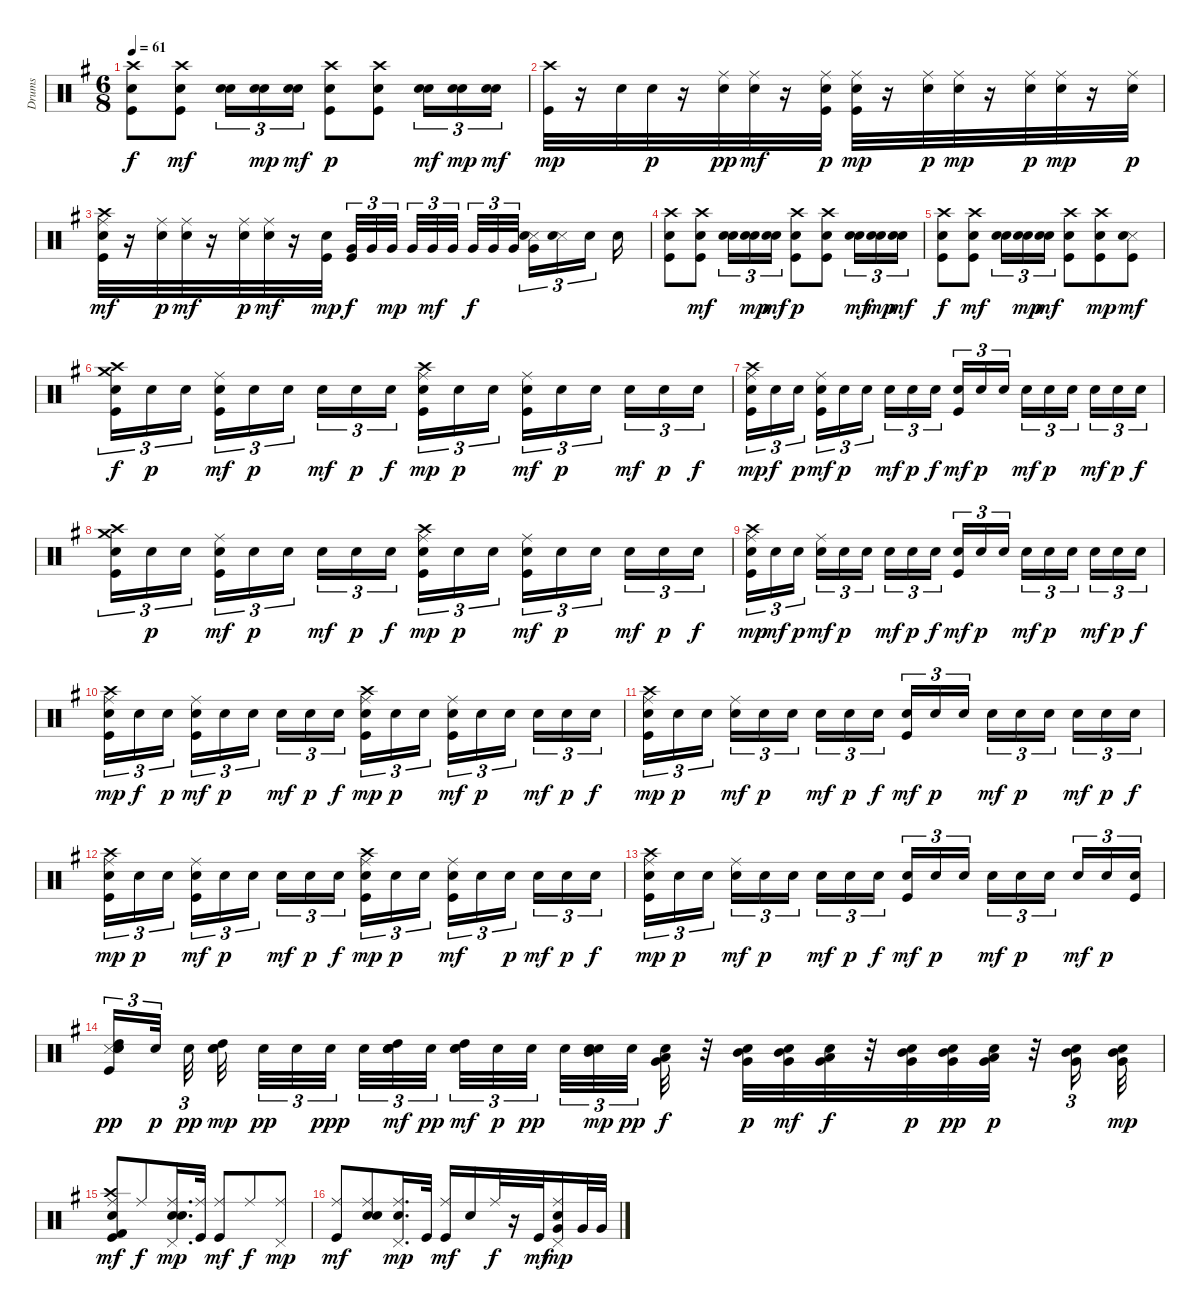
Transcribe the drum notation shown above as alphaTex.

\track ("Drums" "Drums") {instrument percussion}
\staff {score}
\articulation defaults
\ts (6 8)
\tempo 61
\clef neutral
\ks g
("Kick (hit)" "Electric Snare (hit)" "Crash high (hit)").8{dy f} ("Kick (hit)" "Electric Snare (hit)" "Crash high (hit)").8{dy mf} ("Snare (hit) 2" "Electric Snare (hit)").16{tu (3 2)} ("Snare (hit) 2" "Electric Snare (hit)").16{tu (3 2) dy mp} ("Snare (hit) 2" "Electric Snare (hit)").16{tu (3 2) dy mf} ("Kick (hit)" "Electric Snare (hit)" "Crash high (hit)").8{dy p} ("Kick (hit)" "Electric Snare (hit)" "Crash high (hit)").8 ("Snare (hit) 2" "Electric Snare (hit)").16{tu (3 2) dy mf} ("Snare (hit) 2" "Electric Snare (hit)").16{tu (3 2) dy mp} ("Snare (hit) 2" "Electric Snare (hit)").16{tu (3 2) dy mf} |
("Kick (hit)" "Crash high (hit)").32{dy mp} r.16 "Electric Snare (hit)".32 "Electric Snare (hit)".32{dy p} r.16 ("Electric Snare (hit)" "Ride (middle)").32{dy pp} ("Electric Snare (hit)" "Ride (middle)").32{dy mf} r.16 ("Ride (middle)" "Kick (hit)" "Electric Snare (hit)").32{dy p} ("Kick (hit)" "Electric Snare (hit)" "Ride (middle)").32{dy mp} r.16 ("Ride (middle)" "Electric Snare (hit)").32{dy p} ("Electric Snare (hit)" "Ride (middle)").32{dy mp} r.16 ("Electric Snare (hit)" "Ride (middle)").32{dy p} ("Electric Snare (hit)" "Ride (middle)").32{dy mp} r.16 ("Electric Snare (hit)" "Ride (middle)").32{dy p} |
("Kick (hit)" "Electric Snare (hit)" "Crash high (hit)" "Ride (middle)").32{dy mf} r.16 ("Electric Snare (hit)" "Ride (middle)").32{dy p} ("Electric Snare (hit)" "Ride (middle)").32{dy mf} r.16 ("Electric Snare (hit)" "Ride (middle)").32{dy p} ("Electric Snare (hit)" "Ride (middle)").32{dy mf} r.16 ("Kick (hit)" "Electric Snare (hit)").32{dy mp} ("Kick (hit)" "Very Low Tom (hit)").32{tu (3 2) dy f} "Very Low Tom (hit)".32{tu (3 2)} "Very Low Tom (hit)".32{tu (3 2) dy mp beam splitsecondary} "Very Low Tom (hit)".32{tu (3 2)} "Very Low Tom (hit)".32{tu (3 2) dy mf} "Very Low Tom (hit)".32{tu (3 2) beam splitsecondary} "Very Low Tom (hit)".32{tu (3 2) dy f} "Very Low Tom (hit)".32{tu (3 2)} "Very Low Tom (hit)".32{tu (3 2) beam splitsecondary} ("Very Low Tom (hit)" "Snare (side stick) 3" "Electric Snare (hit)").16{tu (3 2)} ("Snare (side stick) 3" "Electric Snare (hit)").16{tu (3 2)} "Electric Snare (hit)".16{tu (3 2) beam splitsecondary} "Electric Snare (hit)".16 |
("Kick (hit)" "Electric Snare (hit)" "Crash high (hit)").8 ("Kick (hit)" "Electric Snare (hit)" "Crash high (hit)").8{dy mf} ("Snare (hit) 2" "Electric Snare (hit)").16{tu (3 2)} ("Snare (hit) 2" "Electric Snare (hit)").16{tu (3 2) dy mp} ("Snare (hit) 2" "Electric Snare (hit)").16{tu (3 2) dy mf} ("Kick (hit)" "Electric Snare (hit)" "Crash high (hit)").8{dy p} ("Kick (hit)" "Electric Snare (hit)" "Crash high (hit)").8 ("Snare (hit) 2" "Electric Snare (hit)").16{tu (3 2) dy mf} ("Snare (hit) 2" "Electric Snare (hit)").16{tu (3 2) dy mp} ("Snare (hit) 2" "Electric Snare (hit)").16{tu (3 2) dy mf} |
("Kick (hit)" "Electric Snare (hit)" "Crash high (hit)").8{dy f} ("Kick (hit)" "Electric Snare (hit)" "Crash high (hit)").8{dy mf} ("Snare (hit) 2" "Electric Snare (hit)").16{tu (3 2)} ("Snare (hit) 2" "Electric Snare (hit)").16{tu (3 2) dy mp} ("Snare (hit) 2" "Electric Snare (hit)").16{tu (3 2) dy mf} ("Crash high (hit)" "Kick (hit)" "Electric Snare (hit)").8 ("Kick (hit)" "Electric Snare (hit)" "Crash high (hit)").8{dy mp} ("Kick (hit)" "Snare (side stick) 3" "Electric Snare (hit)").8{dy mf} |
("Kick (hit)" "Electric Snare (hit)" "Crash medium (hit)" "Crash high (hit)").16{tu (3 2) dy f} "Electric Snare (hit)".16{tu (3 2) dy p} "Electric Snare (hit)".16{tu (3 2) beam splitsecondary} ("Kick (hit)" "Electric Snare (hit)" "Ride (middle)").16{tu (3 2) dy mf} "Electric Snare (hit)".16{tu (3 2) dy p} "Electric Snare (hit)".16{tu (3 2) beam splitsecondary} "Electric Snare (hit)".16{tu (3 2) dy mf} "Electric Snare (hit)".16{tu (3 2) dy p} "Electric Snare (hit)".16{tu (3 2) dy f} ("Kick (hit)" "Electric Snare (hit)" "Crash high (hit)" "Ride (middle)").16{tu (3 2) dy mp} "Electric Snare (hit)".16{tu (3 2) dy p} "Electric Snare (hit)".16{tu (3 2) beam splitsecondary} ("Kick (hit)" "Electric Snare (hit)" "Ride (middle)").16{tu (3 2) dy mf} "Electric Snare (hit)".16{tu (3 2) dy p} "Electric Snare (hit)".16{tu (3 2) beam splitsecondary} "Electric Snare (hit)".16{tu (3 2) dy mf} "Electric Snare (hit)".16{tu (3 2) dy p} "Electric Snare (hit)".16{tu (3 2) dy f} |
("Kick (hit)" "Electric Snare (hit)" "Ride (middle)" "Crash high (hit)").16{tu (3 2) dy mp} "Electric Snare (hit)".16{tu (3 2) dy f} "Electric Snare (hit)".16{tu (3 2) dy p beam splitsecondary} ("Kick (hit)" "Electric Snare (hit)" "Ride (middle)").16{tu (3 2) dy mf} "Electric Snare (hit)".16{tu (3 2) dy p} "Electric Snare (hit)".16{tu (3 2) beam splitsecondary} "Electric Snare (hit)".16{tu (3 2) dy mf} "Electric Snare (hit)".16{tu (3 2) dy p} "Electric Snare (hit)".16{tu (3 2) dy f} ("Kick (hit)" "Electric Snare (hit)").16{tu (3 2) dy mf} "Electric Snare (hit)".16{tu (3 2) dy p} "Electric Snare (hit)".16{tu (3 2) beam splitsecondary} "Electric Snare (hit)".16{tu (3 2) dy mf} "Electric Snare (hit)".16{tu (3 2) dy p} "Electric Snare (hit)".16{tu (3 2) beam splitsecondary} "Electric Snare (hit)".16{tu (3 2) dy mf} "Electric Snare (hit)".16{tu (3 2) dy p} "Electric Snare (hit)".16{tu (3 2) dy f} |
("Kick (hit)" "Electric Snare (hit)" "Crash medium (hit)" "Crash high (hit)").16{tu (3 2)} "Electric Snare (hit)".16{tu (3 2) dy p} "Electric Snare (hit)".16{tu (3 2) beam splitsecondary} ("Kick (hit)" "Electric Snare (hit)" "Ride (middle)").16{tu (3 2) dy mf} "Electric Snare (hit)".16{tu (3 2) dy p} "Electric Snare (hit)".16{tu (3 2) beam splitsecondary} "Electric Snare (hit)".16{tu (3 2) dy mf} "Electric Snare (hit)".16{tu (3 2) dy p} "Electric Snare (hit)".16{tu (3 2) dy f} ("Kick (hit)" "Electric Snare (hit)" "Crash high (hit)" "Ride (middle)").16{tu (3 2) dy mp} "Electric Snare (hit)".16{tu (3 2) dy p} "Electric Snare (hit)".16{tu (3 2) beam splitsecondary} ("Kick (hit)" "Electric Snare (hit)" "Ride (middle)").16{tu (3 2) dy mf} "Electric Snare (hit)".16{tu (3 2) dy p} "Electric Snare (hit)".16{tu (3 2) beam splitsecondary} "Electric Snare (hit)".16{tu (3 2) dy mf} "Electric Snare (hit)".16{tu (3 2) dy p} "Electric Snare (hit)".16{tu (3 2) dy f} |
("Kick (hit)" "Electric Snare (hit)" "Crash high (hit)" "Ride (middle)").16{tu (3 2) dy mp} "Electric Snare (hit)".16{tu (3 2) dy mf} "Electric Snare (hit)".16{tu (3 2) dy p beam splitsecondary} ("Electric Snare (hit)" "Ride (middle)").16{tu (3 2) dy mf} "Electric Snare (hit)".16{tu (3 2) dy p} "Electric Snare (hit)".16{tu (3 2) beam splitsecondary} "Electric Snare (hit)".16{tu (3 2) dy mf} "Electric Snare (hit)".16{tu (3 2) dy p} "Electric Snare (hit)".16{tu (3 2) dy f} ("Kick (hit)" "Electric Snare (hit)").16{tu (3 2) dy mf} "Electric Snare (hit)".16{tu (3 2) dy p} "Electric Snare (hit)".16{tu (3 2) beam splitsecondary} "Electric Snare (hit)".16{tu (3 2) dy mf} "Electric Snare (hit)".16{tu (3 2) dy p} "Electric Snare (hit)".16{tu (3 2) beam splitsecondary} "Electric Snare (hit)".16{tu (3 2) dy mf} "Electric Snare (hit)".16{tu (3 2) dy p} "Electric Snare (hit)".16{tu (3 2) dy f} |
("Kick (hit)" "Electric Snare (hit)" "Crash high (hit)" "Ride (middle)").16{tu (3 2) dy mp} "Electric Snare (hit)".16{tu (3 2) dy f} "Electric Snare (hit)".16{tu (3 2) dy p beam splitsecondary} ("Kick (hit)" "Electric Snare (hit)" "Ride (middle)").16{tu (3 2) dy mf} "Electric Snare (hit)".16{tu (3 2) dy p} "Electric Snare (hit)".16{tu (3 2) beam splitsecondary} "Electric Snare (hit)".16{tu (3 2) dy mf} "Electric Snare (hit)".16{tu (3 2) dy p} "Electric Snare (hit)".16{tu (3 2) dy f} ("Kick (hit)" "Electric Snare (hit)" "Crash high (hit)" "Ride (middle)").16{tu (3 2) dy mp} "Electric Snare (hit)".16{tu (3 2) dy p} "Electric Snare (hit)".16{tu (3 2) beam splitsecondary} ("Kick (hit)" "Electric Snare (hit)" "Ride (middle)").16{tu (3 2) dy mf} "Electric Snare (hit)".16{tu (3 2) dy p} "Electric Snare (hit)".16{tu (3 2) beam splitsecondary} "Electric Snare (hit)".16{tu (3 2) dy mf} "Electric Snare (hit)".16{tu (3 2) dy p} "Electric Snare (hit)".16{tu (3 2) dy f} |
("Kick (hit)" "Electric Snare (hit)" "Crash high (hit)" "Ride (middle)").16{tu (3 2) dy mp} "Electric Snare (hit)".16{tu (3 2) dy p} "Electric Snare (hit)".16{tu (3 2) beam splitsecondary} ("Electric Snare (hit)" "Ride (middle)").16{tu (3 2) dy mf} "Electric Snare (hit)".16{tu (3 2) dy p} "Electric Snare (hit)".16{tu (3 2) beam splitsecondary} "Electric Snare (hit)".16{tu (3 2) dy mf} "Electric Snare (hit)".16{tu (3 2) dy p} "Electric Snare (hit)".16{tu (3 2) dy f} ("Kick (hit)" "Electric Snare (hit)").16{tu (3 2) dy mf} "Electric Snare (hit)".16{tu (3 2) dy p} "Electric Snare (hit)".16{tu (3 2) beam splitsecondary} "Electric Snare (hit)".16{tu (3 2) dy mf} "Electric Snare (hit)".16{tu (3 2) dy p} "Electric Snare (hit)".16{tu (3 2) beam splitsecondary} "Electric Snare (hit)".16{tu (3 2) dy mf} "Electric Snare (hit)".16{tu (3 2) dy p} "Electric Snare (hit)".16{tu (3 2) dy f} |
("Kick (hit)" "Electric Snare (hit)" "Crash high (hit)" "Ride (middle)").16{tu (3 2) dy mp} "Electric Snare (hit)".16{tu (3 2) dy p} "Electric Snare (hit)".16{tu (3 2) beam splitsecondary} ("Kick (hit)" "Electric Snare (hit)" "Ride (middle)").16{tu (3 2) dy mf} "Electric Snare (hit)".16{tu (3 2) dy p} "Electric Snare (hit)".16{tu (3 2) beam splitsecondary} "Electric Snare (hit)".16{tu (3 2) dy mf} "Electric Snare (hit)".16{tu (3 2) dy p} "Electric Snare (hit)".16{tu (3 2) dy f} ("Kick (hit)" "Electric Snare (hit)" "Crash high (hit)" "Ride (middle)").16{tu (3 2) dy mp} "Electric Snare (hit)".16{tu (3 2) dy p} "Electric Snare (hit)".16{tu (3 2) beam splitsecondary} ("Kick (hit)" "Electric Snare (hit)" "Ride (middle)").16{tu (3 2) dy mf} "Electric Snare (hit)".16{tu (3 2)} "Electric Snare (hit)".16{tu (3 2) dy p beam splitsecondary} "Electric Snare (hit)".16{tu (3 2) dy mf} "Electric Snare (hit)".16{tu (3 2) dy p} "Electric Snare (hit)".16{tu (3 2) dy f} |
("Kick (hit)" "Electric Snare (hit)" "Crash high (hit)" "Ride (middle)").16{tu (3 2) dy mp} "Electric Snare (hit)".16{tu (3 2) dy p} "Electric Snare (hit)".16{tu (3 2) beam splitsecondary} ("Electric Snare (hit)" "Ride (middle)").16{tu (3 2) dy mf} "Electric Snare (hit)".16{tu (3 2) dy p} "Electric Snare (hit)".16{tu (3 2) beam splitsecondary} "Electric Snare (hit)".16{tu (3 2) dy mf} "Electric Snare (hit)".16{tu (3 2) dy p} "Electric Snare (hit)".16{tu (3 2) dy f} ("Kick (hit)" "Electric Snare (hit)").16{tu (3 2) dy mf} "Electric Snare (hit)".16{tu (3 2) dy p} "Electric Snare (hit)".16{tu (3 2) beam splitsecondary} "Electric Snare (hit)".16{tu (3 2) dy mf} "Electric Snare (hit)".16{tu (3 2) dy p} "Electric Snare (hit)".16{tu (3 2) beam splitsecondary} "Electric Snare (hit)".16{tu (3 2) dy mf} "Electric Snare (hit)".16{tu (3 2) dy p} ("Kick (hit)" "Electric Snare (hit)").16{tu (3 2)} |
("Kick (hit)" "Snare (side stick) 3" "Snare (hit) 2" "Electric Snare (hit)" "High Tom (hit)").16{tu (3 2) dy pp} "Snare (hit) 2".32{tu (3 2) dy p beam splitsecondary} "Snare (hit) 2".32{tu (3 2) dy pp beam splitsecondary} ("Snare (hit) 2" "Electric Snare (hit)" "High Tom (hit)").32{dy mp beam splitsecondary} "Snare (hit) 2".32{tu (3 2) dy pp} "Snare (hit) 2".32{tu (3 2)} "Snare (hit) 2".32{tu (3 2) dy ppp beam splitsecondary} "Snare (hit) 2".32{tu (3 2)} ("Snare (hit) 2" "High Tom (hit)" "Snare (hit) 2" "Electric Snare (hit)").32{tu (3 2) dy mf} "Snare (hit) 2".32{tu (3 2) dy pp beam splitsecondary} ("Snare (hit) 2" "Electric Snare (hit)" "High Tom (hit)").32{tu (3 2) dy mf} "Snare (hit) 2".32{tu (3 2) dy p} "Snare (hit) 2".32{tu (3 2) dy pp beam splitsecondary} "Snare (hit) 2".32{tu (3 2)} ("Snare (hit) 2" "Electric Snare (hit)" "Mid Tom (hit)").32{tu (3 2) dy mp} "Snare (hit) 2".32{tu (3 2) dy pp beam splitsecondary} ("Electric Snare (hit)" "Very Low Tom (hit)" "Low Tom (hit)").32{dy f} r.32 ("Mid Tom (hit)" "Electric Snare (hit)" "Very Low Tom (hit)").32{dy p} ("Electric Snare (hit)" "Mid Tom (hit)" "Very Low Tom (hit)").32{dy mf} ("Very Low Tom (hit)" "Low Tom (hit)" "Electric Snare (hit)").32{dy f} r.32 ("Electric Snare (hit)" "Mid Tom (hit)" "Very Low Tom (hit)").32{dy p} ("Electric Snare (hit)" "Very Low Tom (hit)" "Mid Tom (hit)").32{dy pp} ("Electric Snare (hit)" "Very Low Tom (hit)" "Low Tom (hit)").32{dy p} r.32 ("Electric Snare (hit)" "Very Low Tom (hit)" "Mid Tom (hit)").16{tu (3 2)} ("Electric Snare (hit)" "Very Low Tom (hit)" "Mid Tom (hit)").32{dy mp} |
("Kick (hit)" "Kick (hit) 2" "Electric Snare (hit)" "Crash high (hit)" "Ride (middle)").8{dy mf} "Ride (middle)".8{dy f} ("Snare (hit) 2" "Ride (middle)" "Pedal Hi-Hat (hit)" "Electric Snare (hit)").16{d dy mp} ("Kick (hit)" "Ride (middle)").32 ("Kick (hit)" "Ride (middle)").8{dy mf} "Ride (middle)".8{dy f} ("Ride (middle)" "Pedal Hi-Hat (hit)").8{dy mp} |
("Kick (hit)" "Ride (middle)").8{dy mf} ("Snare (hit) 2" "Electric Snare (hit)" "Ride (middle)").8 ("Electric Snare (hit)" "Ride (middle)" "Pedal Hi-Hat (hit)").16{d dy mp} "Kick (hit)".32 ("Kick (hit)" "Ride (middle)").16{dy mf} "Electric Snare (hit)".16 "Ride (middle)".32{dy f} r.16 "Kick (hit)".32{dy mf} ("Electric Snare (hit)" "Ride (middle)" "Very Low Tom (hit)" "Pedal Hi-Hat (hit)").16{dy mp} "Very Low Tom (hit)".32 "Very Low Tom (hit)".32
